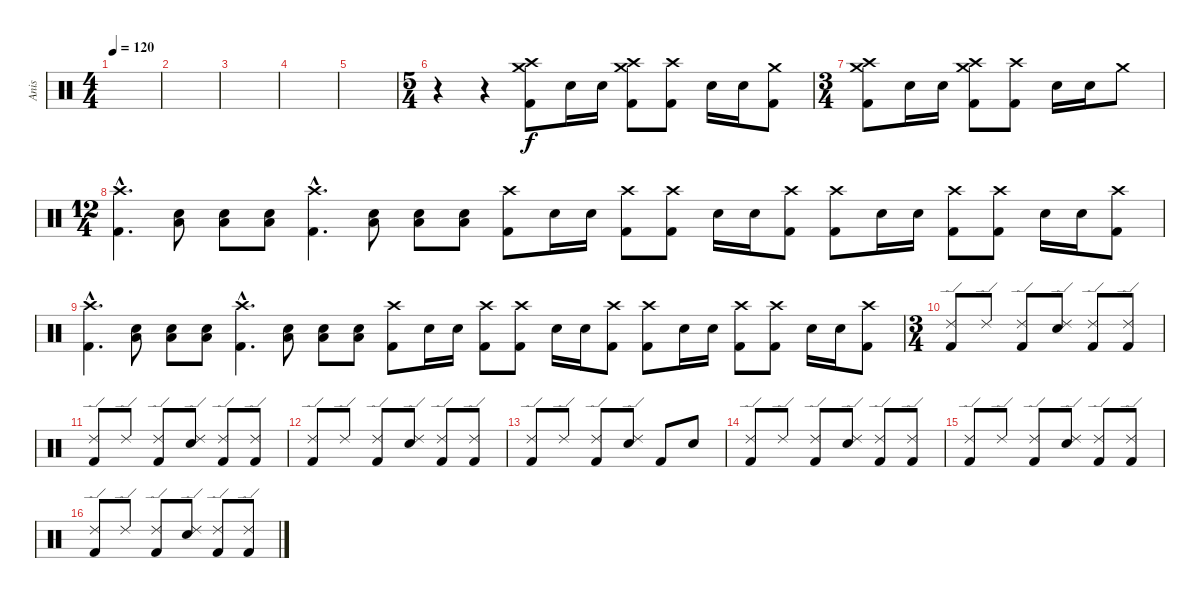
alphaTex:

\track ("Anis" "Anis") {instrument percussion}
\staff {score}
\articulation defaults
\ts (4 4)
\tempo 120
\clef neutral
\ks c
|
|
|
|
|
\ts (5 4)
r.4 r.4 ("Kick (hit) 2" "Crash high (hit)" "Crash medium (hit)").8 "Electric Snare (hit)".16 "Electric Snare (hit)".16 ("Kick (hit) 2" "Crash high (hit)" "Crash medium (hit)").8 ("Kick (hit) 2" "Crash high (hit)").8 "Electric Snare (hit)".16 "Electric Snare (hit)".16 ("Kick (hit) 2" "Crash medium (hit)").8 |
\ts (3 4)
("Kick (hit) 2" "Crash high (hit)" "Crash medium (hit)").8 "Electric Snare (hit)".16 "Electric Snare (hit)".16 ("Kick (hit) 2" "Crash high (hit)" "Crash medium (hit)").8 ("Kick (hit) 2" "Crash high (hit)").8 "Electric Snare (hit)".16 "Electric Snare (hit)".16 "Crash medium (hit)".8 |
\ts (12 4)
("Kick (hit) 2"{hac} "Crash high (hit)"{hac}).4{d} ("Electric Snare (hit)" "Low Floor Tom (hit)").8 ("Electric Snare (hit)" "Low Floor Tom (hit)").8 ("Electric Snare (hit)" "Low Floor Tom (hit)").8 ("Kick (hit) 2"{hac} "Crash high (hit)"{hac}).4{d} ("Electric Snare (hit)" "Low Floor Tom (hit)").8 ("Electric Snare (hit)" "Low Floor Tom (hit)").8 ("Electric Snare (hit)" "Low Floor Tom (hit)").8 ("Kick (hit) 2" "Crash high (hit)").8 "Electric Snare (hit)".16 "Electric Snare (hit)".16 ("Kick (hit) 2" "Crash high (hit)").8 ("Kick (hit) 2" "Crash high (hit)").8 "Electric Snare (hit)".16 "Electric Snare (hit)".16 ("Kick (hit) 2" "Crash high (hit)").8 ("Kick (hit) 2" "Crash high (hit)").8 "Electric Snare (hit)".16 "Electric Snare (hit)".16 ("Kick (hit) 2" "Crash high (hit)").8 ("Kick (hit) 2" "Crash high (hit)").8 "Electric Snare (hit)".16 "Electric Snare (hit)".16 ("Kick (hit) 2" "Crash high (hit)").8 |
("Kick (hit) 2"{hac} "Crash high (hit)"{hac}).4{d} ("Electric Snare (hit)" "Low Floor Tom (hit)").8 ("Electric Snare (hit)" "Low Floor Tom (hit)").8 ("Electric Snare (hit)" "Low Floor Tom (hit)").8 ("Kick (hit) 2"{hac} "Crash high (hit)"{hac}).4{d} ("Electric Snare (hit)" "Low Floor Tom (hit)").8 ("Electric Snare (hit)" "Low Floor Tom (hit)").8 ("Electric Snare (hit)" "Low Floor Tom (hit)").8 ("Kick (hit) 2" "Crash high (hit)").8 "Electric Snare (hit)".16 "Electric Snare (hit)".16 ("Kick (hit) 2" "Crash high (hit)").8 ("Kick (hit) 2" "Crash high (hit)").8 "Electric Snare (hit)".16 "Electric Snare (hit)".16 ("Kick (hit) 2" "Crash high (hit)").8 ("Kick (hit) 2" "Crash high (hit)").8 "Electric Snare (hit)".16 "Electric Snare (hit)".16 ("Kick (hit) 2" "Crash high (hit)").8 ("Kick (hit) 2" "Crash high (hit)").8 "Electric Snare (hit)".16 "Electric Snare (hit)".16 ("Kick (hit) 2" "Crash high (hit)").8 |
\ts (3 4)
("Ride (edge) 2" "Kick (hit) 2").8 "Ride (edge) 2".8 ("Ride (edge) 2" "Kick (hit) 2").8 ("Electric Snare (hit)" "Ride (edge) 2").8 ("Ride (edge) 2" "Kick (hit) 2").8 ("Ride (edge) 2" "Kick (hit) 2").8 |
("Ride (edge) 2" "Kick (hit) 2").8 "Ride (edge) 2".8 ("Ride (edge) 2" "Kick (hit) 2").8 ("Electric Snare (hit)" "Ride (edge) 2").8 ("Ride (edge) 2" "Kick (hit) 2").8 ("Ride (edge) 2" "Kick (hit) 2").8 |
("Ride (edge) 2" "Kick (hit) 2").8 "Ride (edge) 2".8 ("Ride (edge) 2" "Kick (hit) 2").8 ("Electric Snare (hit)" "Ride (edge) 2").8 ("Ride (edge) 2" "Kick (hit) 2").8 ("Ride (edge) 2" "Kick (hit) 2").8 |
("Ride (edge) 2" "Kick (hit) 2").8 "Ride (edge) 2".8 ("Ride (edge) 2" "Kick (hit) 2").8 ("Electric Snare (hit)" "Ride (edge) 2").8 "Kick (hit) 2".8 "Electric Snare (hit)".8 |
("Ride (edge) 2" "Kick (hit) 2").8 "Ride (edge) 2".8 ("Ride (edge) 2" "Kick (hit) 2").8 ("Electric Snare (hit)" "Ride (edge) 2").8 ("Ride (edge) 2" "Kick (hit) 2").8 ("Ride (edge) 2" "Kick (hit) 2").8 |
("Ride (edge) 2" "Kick (hit) 2").8 "Ride (edge) 2".8 ("Ride (edge) 2" "Kick (hit) 2").8 ("Electric Snare (hit)" "Ride (edge) 2").8 ("Ride (edge) 2" "Kick (hit) 2").8 ("Ride (edge) 2" "Kick (hit) 2").8 |
("Ride (edge) 2" "Kick (hit) 2").8 "Ride (edge) 2".8 ("Ride (edge) 2" "Kick (hit) 2").8 ("Electric Snare (hit)" "Ride (edge) 2").8 ("Ride (edge) 2" "Kick (hit) 2").8 ("Ride (edge) 2" "Kick (hit) 2").8
